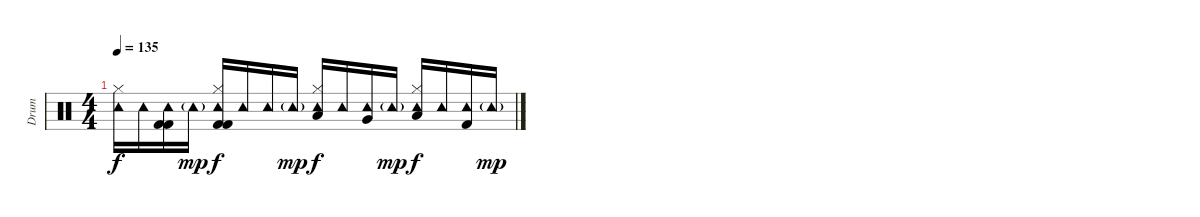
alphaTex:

\track ("Drum" "Drum") {instrument percussion}
\staff {score}
\articulation defaults
\ts (4 4)
\tempo 135
\clef neutral
\ks c
("Tambourine (hit)" "Hi-Hat (closed)").16{dy f} "Tambourine (hit)".16 ("Tambourine (hit)" "Kick (hit) 2" "Kick (hit) 2").16 "Tambourine (hit)"{g}.16{dy mp} ("Tambourine (hit)" "Hi-Hat (closed)" "Kick (hit) 2" "Kick (hit) 2").16{dy f} "Tambourine (hit)".16 "Tambourine (hit)".16 "Tambourine (hit)"{g}.16{dy mp} ("Tambourine (hit)" "Hi-Hat (closed)" "Low Tom (hit)").16{dy f} "Tambourine (hit)".16 ("Tambourine (hit)" "Very Low Tom (hit)").16 "Tambourine (hit)"{g}.16{dy mp} ("Tambourine (hit)" "Hi-Hat (closed)" "Low Floor Tom (hit)").16{dy f} "Tambourine (hit)".16 ("Tambourine (hit)" "Kick (hit) 2").16 "Tambourine (hit)"{g}.16{dy mp}
